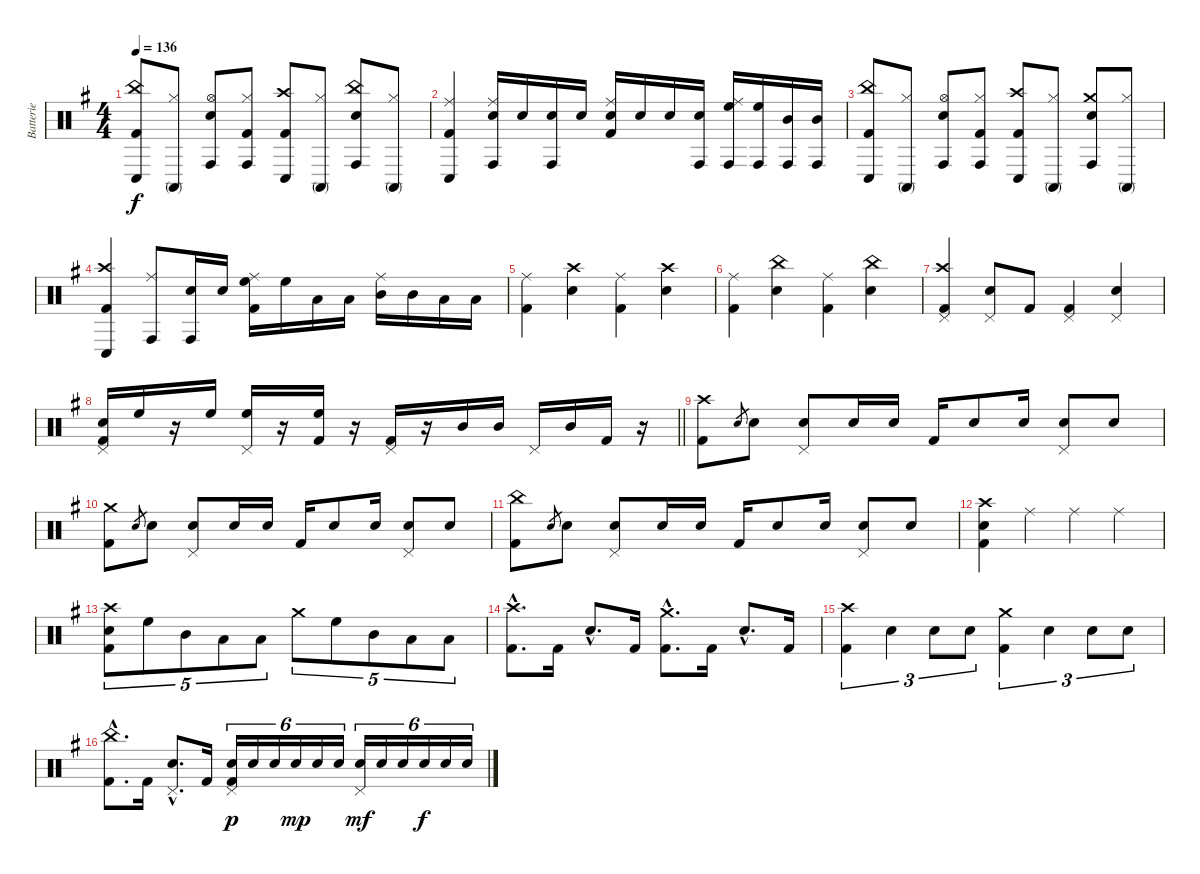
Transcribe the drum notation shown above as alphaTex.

\track ("Batterie" "Batterie") {instrument percussion}
\staff {score}
\articulation defaults
\ts (4 4)
\tempo 136
\clef neutral
\ks g
("China (hit)" "Conga low (hit)" "Kick (hit) 2").8{dy f volume 13} ("Hi-Hat (closed)" "Conga high (mute)").8 ("Hi-Hat (open)" "Conga high (hit)" "Snare (hit) 2").8 ("Hi-Hat (closed)" "Conga high (hit)" "Kick (hit) 2").8 ("Crash high (hit)" "Conga low (hit)" "Kick (hit) 2").8 ("Hi-Hat (closed)" "Conga high (mute)").8 ("China (hit)" "Conga high (hit)" "Snare (hit) 2").8 ("Hi-Hat (closed)" "Conga high (mute)").8 |
("Ride (middle)" "Conga low (hit)" "Kick (hit) 2").4 ("Ride (middle)" "Conga high (hit)" "Snare (hit) 2").16 "Snare (hit) 2".16 ("Conga high (hit)" "Snare (hit) 2").16 "Snare (hit) 2".16 ("Ride (middle)" "Snare (hit) 2" "Kick (hit) 2").16 "Snare (hit) 2".16 "Snare (hit) 2".16 ("Conga high (hit)" "Snare (hit) 2").16 ("Ride (middle)" "High Floor Tom (hit)" "Conga high (hit)").16 ("High Floor Tom (hit)" "Conga high (hit)").16 ("Mid Tom (hit)" "Conga high (hit)").16 ("Mid Tom (hit)" "Conga high (hit)").16 |
("China (hit)" "Conga low (hit)" "Kick (hit) 2").8 ("Hi-Hat (closed)" "Conga high (mute)").8 ("Hi-Hat (open)" "Conga high (hit)" "Snare (hit) 2").8 ("Hi-Hat (closed)" "Conga high (hit)" "Kick (hit) 2").8 ("Crash high (hit)" "Conga low (hit)" "Kick (hit) 2").8 ("Hi-Hat (closed)" "Conga high (mute)").8 ("Crash medium (hit)" "Conga high (hit)" "Snare (hit) 2").8 ("Hi-Hat (closed)" "Conga high (mute)").8 |
("Crash high (hit)" "Conga low (hit)" "Kick (hit) 2").4 ("Ride (middle)" "Conga high (hit)").8 ("Conga high (hit)" "Snare (hit) 2").16 "Snare (hit) 2".16 ("Ride (middle)" "High Floor Tom (hit)" "Kick (hit) 2").16 "High Floor Tom (hit)".16 "Low Tom (hit)".16 "Low Tom (hit)".16 ("Ride (middle)" "Mid Tom (hit)").16 "Mid Tom (hit)".16 "Low Floor Tom (hit)".16 "Low Floor Tom (hit)".16 |
("Ride (middle)" "Kick (hit) 2").4 ("Crash high (hit)" "Snare (hit) 2").4 ("Ride (middle)" "Kick (hit) 2").4 ("Crash high (hit)" "Snare (hit) 2").4 |
("Ride (middle)" "Kick (hit) 2").4 ("China (hit)" "Snare (hit) 2").4 ("Ride (middle)" "Kick (hit) 2").4 ("China (hit)" "Snare (hit) 2").4 |
("Crash high (hit)" "Pedal Hi-Hat (hit)" "Kick (hit) 2").4 ("Pedal Hi-Hat (hit)" "Snare (hit) 2").8 "Kick (hit) 2".8 ("Pedal Hi-Hat (hit)" "Kick (hit) 2").4 ("Pedal Hi-Hat (hit)" "Snare (hit) 2").4 |
\barLineRight lightlight
("Pedal Hi-Hat (hit)" "Snare (hit) 2" "Kick (hit) 2").16 "High Floor Tom (hit)".16 r.16 "High Floor Tom (hit)".16 ("Pedal Hi-Hat (hit)" "High Floor Tom (hit)").16 r.16 ("High Floor Tom (hit)" "Kick (hit) 2").16 r.16 ("Pedal Hi-Hat (hit)" "Kick (hit) 2").16 r.16 "Mid Tom (hit)".16 "Mid Tom (hit)".16 "Pedal Hi-Hat (hit)".16 "Mid Tom (hit)".16 "Kick (hit) 2".16 r.16 |
("Crash high (hit)" "Kick (hit) 2").8{volume 16} "Snare (hit) 2".8{gr} "Snare (hit) 2".8 ("Pedal Hi-Hat (hit)" "Snare (hit) 2").8 "Snare (hit) 2".16 "Snare (hit) 2".16 "Kick (hit) 2".16 "Snare (hit) 2".8 "Snare (hit) 2".16 ("Pedal Hi-Hat (hit)" "Snare (hit) 2").8 "Snare (hit) 2".8 |
("Crash medium (hit)" "Kick (hit) 2").8 "Snare (hit) 2".8{gr} "Snare (hit) 2".8 ("Pedal Hi-Hat (hit)" "Snare (hit) 2").8 "Snare (hit) 2".16 "Snare (hit) 2".16 "Kick (hit) 2".16 "Snare (hit) 2".8 "Snare (hit) 2".16 ("Pedal Hi-Hat (hit)" "Snare (hit) 2").8 "Snare (hit) 2".8 |
("China (hit)" "Kick (hit) 2").8 "Snare (hit) 2".8{gr} "Snare (hit) 2".8 ("Pedal Hi-Hat (hit)" "Snare (hit) 2").8 "Snare (hit) 2".16 "Snare (hit) 2".16 "Kick (hit) 2".16 "Snare (hit) 2".8 "Snare (hit) 2".16 ("Pedal Hi-Hat (hit)" "Snare (hit) 2").8 "Snare (hit) 2".8 |
("Crash high (hit)" "Snare (hit) 2" "Kick (hit) 2").4 "Ride (middle)".4 "Ride (middle)".4 "Ride (middle)".4 |
("Crash high (hit)" "Snare (hit) 2" "Kick (hit) 2").8{tu (5 4)} "High Floor Tom (hit)".8{tu (5 4)} "Mid Tom (hit)".8{tu (5 4)} "Low Tom (hit)".8{tu (5 4)} "Low Floor Tom (hit)".8{tu (5 4)} "Crash medium (hit)".8{tu (5 4)} "High Floor Tom (hit)".8{tu (5 4)} "Mid Tom (hit)".8{tu (5 4)} "Low Tom (hit)".8{tu (5 4)} "Low Floor Tom (hit)".8{tu (5 4)} |
("Crash high (hit)"{hac} "Kick (hit) 2"{hac}).8{d} "Kick (hit) 2".16 "Snare (hit) 2"{hac}.8{d} "Kick (hit) 2".16 ("Crash medium (hit)"{hac} "Kick (hit) 2"{hac}).8{d} "Kick (hit) 2".16 "Snare (hit) 2"{hac}.8{d} "Kick (hit) 2".16 |
("Crash high (hit)" "Kick (hit) 2").4{tu (3 2)} "Snare (hit) 2".4{tu (3 2)} "Snare (hit) 2".8{tu (3 2)} "Snare (hit) 2".8{tu (3 2)} ("Crash medium (hit)" "Kick (hit) 2").4{tu (3 2)} "Snare (hit) 2".4{tu (3 2)} "Snare (hit) 2".8{tu (3 2)} "Snare (hit) 2".8{tu (3 2)} |
("China (hit)"{hac} "Kick (hit) 2"{hac}).8{d} "Kick (hit) 2".16 ("Pedal Hi-Hat (hit)"{hac} "Snare (hit) 2"{hac}).8{d} "Kick (hit) 2".16 ("Pedal Hi-Hat (hit)" "Snare (hit) 2" "Kick (hit) 2").16{tu (6 4) dy p} "Snare (hit) 2".16{tu (6 4)} "Snare (hit) 2".16{tu (6 4)} "Snare (hit) 2".16{tu (6 4) dy mp} "Snare (hit) 2".16{tu (6 4)} "Snare (hit) 2".16{tu (6 4)} ("Pedal Hi-Hat (hit)" "Snare (hit) 2").16{tu (6 4) dy mf} "Snare (hit) 2".16{tu (6 4)} "Snare (hit) 2".16{tu (6 4)} "Snare (hit) 2".16{tu (6 4) dy f} "Snare (hit) 2".16{tu (6 4)} "Snare (hit) 2".16{tu (6 4)}
